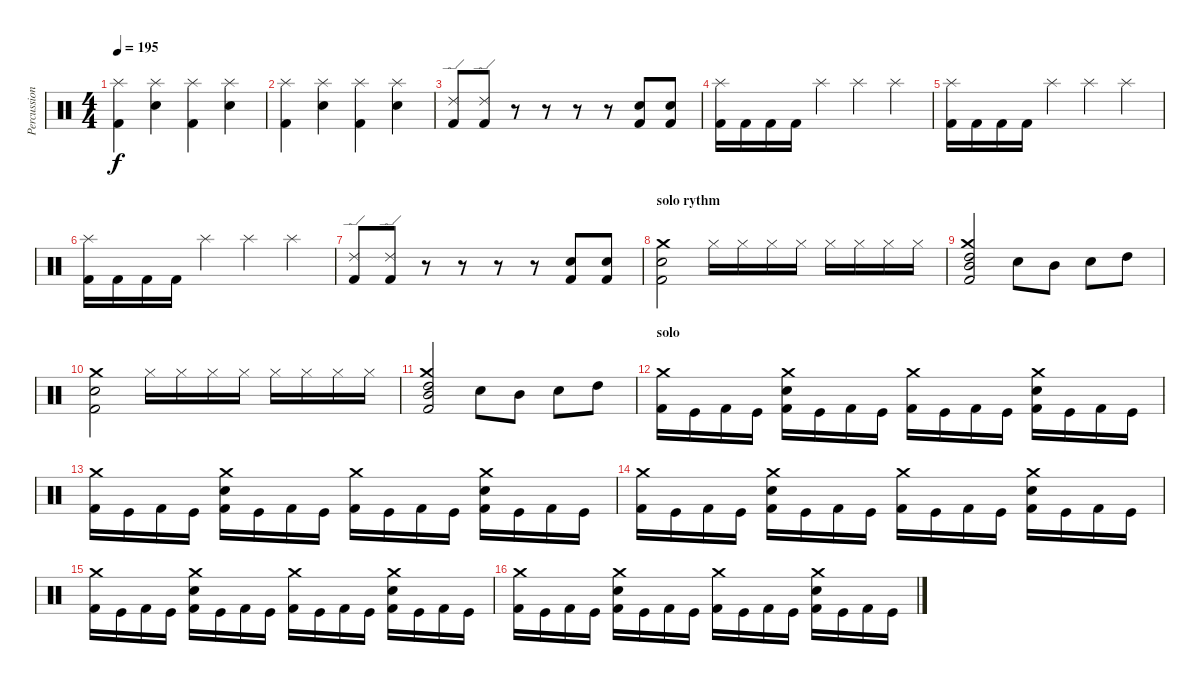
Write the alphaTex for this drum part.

\track ("Percussion" "Percussion") {instrument percussion}
\staff {score}
\articulation defaults
\ts (4 4)
\tempo 195
\clef neutral
\ks c
("Splash (hit)" "Kick (hit) 2").4{dy f} ("Splash (hit)" "Electric Snare (hit)").4 ("Splash (hit)" "Kick (hit) 2").4 ("Splash (hit)" "Electric Snare (hit)").4 |
("Splash (hit)" "Kick (hit) 2").4 ("Splash (hit)" "Electric Snare (hit)").4 ("Splash (hit)" "Kick (hit) 2").4 ("Splash (hit)" "Electric Snare (hit)").4 |
("Ride (edge) 2" "Kick (hit) 2").8 ("Ride (edge) 2" "Kick (hit) 2").8 r.8 r.8 r.8 r.8 ("Metronome (bell)" "Kick (hit) 2").8 ("Metronome (bell)" "Kick (hit) 2").8 |
("Splash (hit)" "Kick (hit) 2").16 "Kick (hit) 2".16 "Kick (hit) 2".16 "Kick (hit) 2".16 "Splash (hit)".4 "Splash (hit)".4 "Splash (hit)".4 |
("Splash (hit)" "Kick (hit) 2").16 "Kick (hit) 2".16 "Kick (hit) 2".16 "Kick (hit) 2".16 "Splash (hit)".4 "Splash (hit)".4 "Splash (hit)".4 |
("Splash (hit)" "Kick (hit) 2").16 "Kick (hit) 2".16 "Kick (hit) 2".16 "Kick (hit) 2".16 "Splash (hit)".4 "Splash (hit)".4 "Splash (hit)".4 |
("Ride (edge) 2" "Kick (hit) 2").8 ("Ride (edge) 2" "Kick (hit) 2").8 r.8 r.8 r.8 r.8 ("Metronome (bell)" "Kick (hit) 2").8 ("Metronome (bell)" "Kick (hit) 2").8 |
\section ("" "solo rythm")
("Crash medium (hit)" "Electric Snare (hit)" "Kick (hit) 2").2 "Hi-Hat (closed)".16 "Hi-Hat (closed)".16 "Hi-Hat (closed)".16 "Hi-Hat (closed)".16 "Hi-Hat (closed)".16 "Hi-Hat (closed)".16 "Hi-Hat (closed)".16 "Hi-Hat (closed)".16 |
("Crash medium (hit)" "High Tom (hit)" "Mid Tom (hit)" "Kick (hit) 2").2 "Electric Snare (hit)".8 "Mid Tom (hit)".8 "Snare (hit) 2".8 "High Tom (hit)".8 |
("Crash medium (hit)" "Electric Snare (hit)" "Kick (hit) 2").2 "Hi-Hat (closed)".16 "Hi-Hat (closed)".16 "Hi-Hat (closed)".16 "Hi-Hat (closed)".16 "Hi-Hat (closed)".16 "Hi-Hat (closed)".16 "Hi-Hat (closed)".16 "Hi-Hat (closed)".16 |
("Crash medium (hit)" "High Tom (hit)" "Mid Tom (hit)" "Kick (hit) 2").2 "Electric Snare (hit)".8 "Mid Tom (hit)".8 "Snare (hit) 2".8 "High Tom (hit)".8 |
\section ("" "solo")
("Crash medium (hit)" "Kick (hit) 2").16 "Kick (hit)".16 "Kick (hit) 2".16 "Kick (hit)".16 ("Crash medium (hit)" "Electric Snare (hit)" "Kick (hit) 2").16 "Kick (hit)".16 "Kick (hit) 2".16 "Kick (hit)".16 ("Crash medium (hit)" "Kick (hit) 2").16 "Kick (hit)".16 "Kick (hit) 2".16 "Kick (hit)".16 ("Crash medium (hit)" "Electric Snare (hit)" "Kick (hit) 2").16 "Kick (hit)".16 "Kick (hit) 2".16 "Kick (hit)".16 |
("Crash medium (hit)" "Kick (hit) 2").16 "Kick (hit)".16 "Kick (hit) 2".16 "Kick (hit)".16 ("Crash medium (hit)" "Electric Snare (hit)" "Kick (hit) 2").16 "Kick (hit)".16 "Kick (hit) 2".16 "Kick (hit)".16 ("Crash medium (hit)" "Kick (hit) 2").16 "Kick (hit)".16 "Kick (hit) 2".16 "Kick (hit)".16 ("Crash medium (hit)" "Electric Snare (hit)" "Kick (hit) 2").16 "Kick (hit)".16 "Kick (hit) 2".16 "Kick (hit)".16 |
("Crash medium (hit)" "Kick (hit) 2").16 "Kick (hit)".16 "Kick (hit) 2".16 "Kick (hit)".16 ("Crash medium (hit)" "Electric Snare (hit)" "Kick (hit) 2").16 "Kick (hit)".16 "Kick (hit) 2".16 "Kick (hit)".16 ("Crash medium (hit)" "Kick (hit) 2").16 "Kick (hit)".16 "Kick (hit) 2".16 "Kick (hit)".16 ("Crash medium (hit)" "Electric Snare (hit)" "Kick (hit) 2").16 "Kick (hit)".16 "Kick (hit) 2".16 "Kick (hit)".16 |
("Crash medium (hit)" "Kick (hit) 2").16 "Kick (hit)".16 "Kick (hit) 2".16 "Kick (hit)".16 ("Crash medium (hit)" "Electric Snare (hit)" "Kick (hit) 2").16 "Kick (hit)".16 "Kick (hit) 2".16 "Kick (hit)".16 ("Crash medium (hit)" "Kick (hit) 2").16 "Kick (hit)".16 "Kick (hit) 2".16 "Kick (hit)".16 ("Crash medium (hit)" "Electric Snare (hit)" "Kick (hit) 2").16 "Kick (hit)".16 "Kick (hit) 2".16 "Kick (hit)".16 |
("Crash medium (hit)" "Kick (hit) 2").16 "Kick (hit)".16 "Kick (hit) 2".16 "Kick (hit)".16 ("Crash medium (hit)" "Electric Snare (hit)" "Kick (hit) 2").16 "Kick (hit)".16 "Kick (hit) 2".16 "Kick (hit)".16 ("Crash medium (hit)" "Kick (hit) 2").16 "Kick (hit)".16 "Kick (hit) 2".16 "Kick (hit)".16 ("Crash medium (hit)" "Electric Snare (hit)" "Kick (hit) 2").16 "Kick (hit)".16 "Kick (hit) 2".16 "Kick (hit)".16
